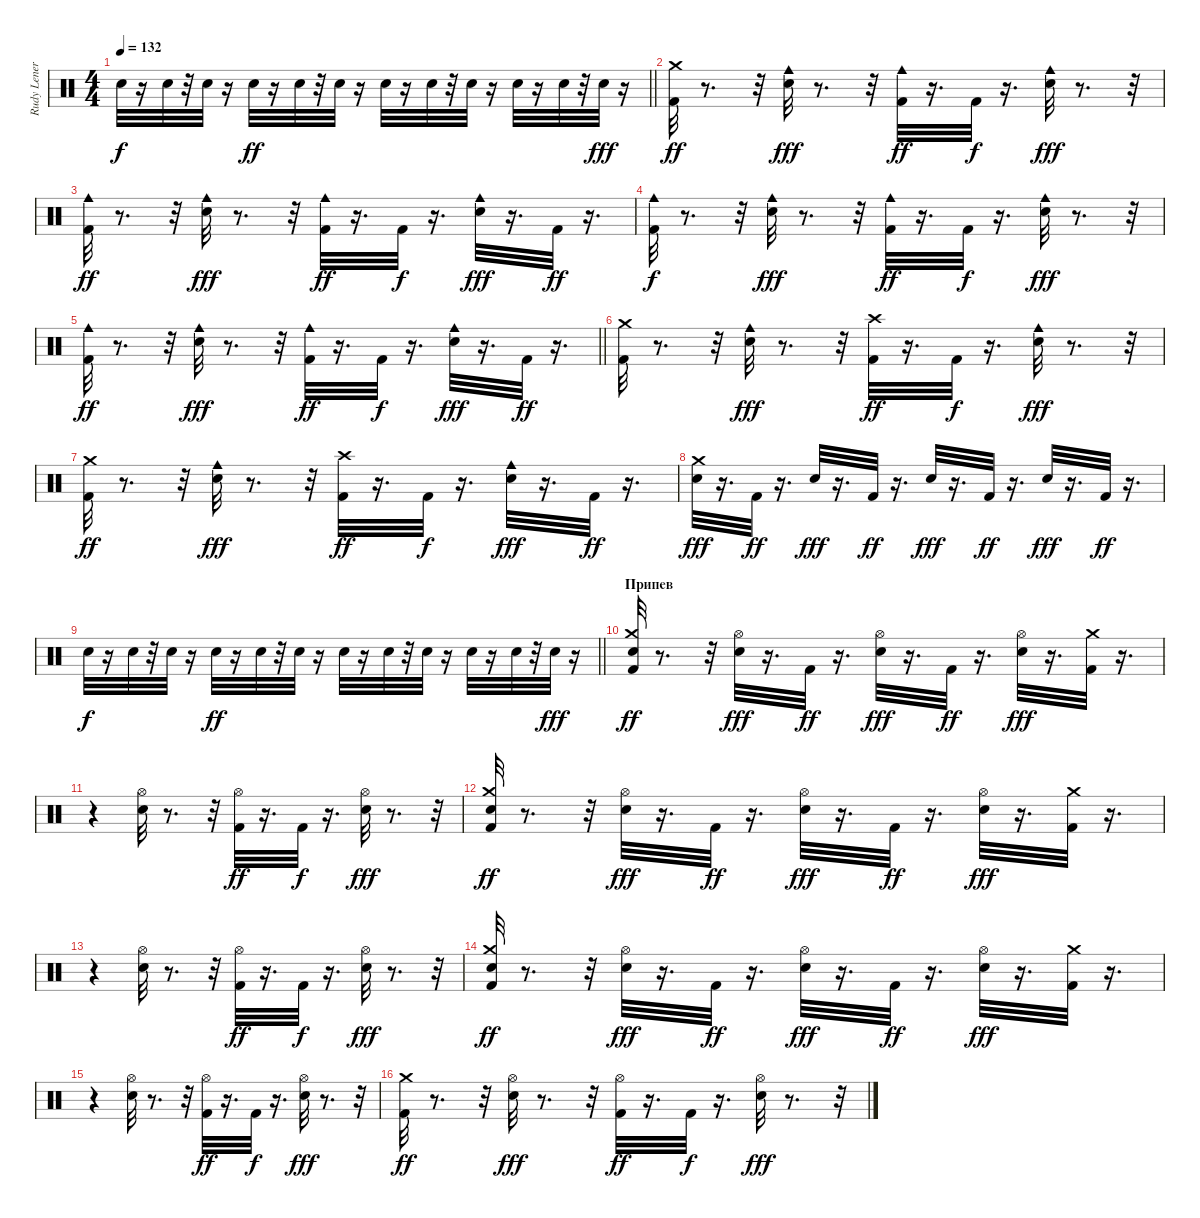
\track ("Rudy Leners" "Rudy Lener") {instrument percussion}
\staff {score}
\articulation defaults
\ts (4 4)
\tempo 132
\clef neutral
\barLineRight lightlight
\ks c "Snare (hit) 2".32{dy f}
r.16 "Snare (hit) 2".32 r.32 "Snare (hit) 2".32 r.16 "Snare (hit) 2".32{dy ff} r.16 "Snare (hit) 2".32 r.32 "Snare (hit) 2".32 r.16 "Snare (hit) 2".32 r.16 "Snare (hit) 2".32 r.32 "Snare (hit) 2".32 r.16 "Snare (hit) 2".32 r.16 "Snare (hit) 2".32 r.32 "Snare (hit) 2".32{dy fff} r.16 |
("Crash medium (hit)" "Kick (hit) 2").32{dy ff} r.8{d} r.32 ("Snare (hit) 2" "Cowbell medium (hit)").32{dy fff} r.8{d} r.32 ("Kick (hit) 2" "Cowbell medium (hit)").32{dy ff} r.16{d} "Kick (hit) 2".32{dy f} r.16{d} ("Snare (hit) 2" "Cowbell medium (hit)").32{dy fff} r.8{d} r.32 |
("Cowbell medium (hit)" "Kick (hit) 2").32{dy ff} r.8{d} r.32 ("Cowbell medium (hit)" "Snare (hit) 2").32{dy fff} r.8{d} r.32 ("Cowbell medium (hit)" "Kick (hit) 2").32{dy ff} r.16{d} "Kick (hit) 2".32{dy f} r.16{d} ("Cowbell medium (hit)" "Snare (hit) 2").32{dy fff} r.16{d} "Kick (hit) 2".32{dy ff} r.16{d} |
("Kick (hit) 2" "Cowbell medium (hit)").32{dy f} r.8{d} r.32 ("Snare (hit) 2" "Cowbell medium (hit)").32{dy fff} r.8{d} r.32 ("Kick (hit) 2" "Cowbell medium (hit)").32{dy ff} r.16{d} "Kick (hit) 2".32{dy f} r.16{d} ("Snare (hit) 2" "Cowbell medium (hit)").32{dy fff} r.8{d} r.32 |
\barLineRight lightlight
("Cowbell medium (hit)" "Kick (hit) 2").32{dy ff} r.8{d} r.32 ("Cowbell medium (hit)" "Snare (hit) 2").32{dy fff} r.8{d} r.32 ("Cowbell medium (hit)" "Kick (hit) 2").32{dy ff} r.16{d} "Kick (hit) 2".32{dy f} r.16{d} ("Cowbell medium (hit)" "Snare (hit) 2").32{dy fff} r.16{d} "Kick (hit) 2".32{dy ff} r.16{d} |
("Crash medium (hit)" "Kick (hit) 2").32 r.8{d} r.32 ("Snare (hit) 2" "Cowbell medium (hit)").32{dy fff} r.8{d} r.32 ("Crash high (hit)" "Kick (hit) 2").32{dy ff} r.16{d} "Kick (hit) 2".32{dy f} r.16{d} ("Snare (hit) 2" "Cowbell medium (hit)").32{dy fff} r.8{d} r.32 |
("Crash medium (hit)" "Kick (hit) 2").32{dy ff} r.8{d} r.32 ("Cowbell medium (hit)" "Snare (hit) 2").32{dy fff} r.8{d} r.32 ("Crash high (hit)" "Kick (hit) 2").32{dy ff} r.16{d} "Kick (hit) 2".32{dy f} r.16{d} ("Cowbell medium (hit)" "Snare (hit) 2").32{dy fff} r.16{d} "Kick (hit) 2".32{dy ff} r.16{d} |
("Crash medium (hit)" "Snare (hit) 2").32{dy fff} r.16{d} "Kick (hit) 2".32{dy ff} r.16{d} "Snare (hit) 2".32{dy fff} r.16{d} "Kick (hit) 2".32{dy ff} r.16{d} "Snare (hit) 2".32{dy fff} r.16{d} "Kick (hit) 2".32{dy ff} r.16{d} "Snare (hit) 2".32{dy fff} r.16{d} "Kick (hit) 2".32{dy ff} r.16{d} |
\barLineRight lightlight "Snare (hit) 2".32{dy f}
r.16 "Snare (hit) 2".32 r.32 "Snare (hit) 2".32 r.16 "Snare (hit) 2".32{dy ff} r.16 "Snare (hit) 2".32 r.32 "Snare (hit) 2".32 r.16 "Snare (hit) 2".32 r.16 "Snare (hit) 2".32 r.32 "Snare (hit) 2".32 r.16 "Snare (hit) 2".32 r.16 "Snare (hit) 2".32 r.32 "Snare (hit) 2".32{dy fff} r.16 |
\section ("" "Припев")
("Snare (hit) 2" "Crash medium (hit)" "Kick (hit) 2").32{dy ff} r.8{d} r.32 ("Hi-Hat (open)" "Snare (hit) 2").32{dy fff} r.16{d} "Kick (hit) 2".32{dy ff} r.16{d} ("Hi-Hat (open)" "Snare (hit) 2").32{dy fff} r.16{d} "Kick (hit) 2".32{dy ff} r.16{d} ("Hi-Hat (open)" "Snare (hit) 2").32{dy fff} r.16{d} ("Kick (hit) 2" "Crash medium (hit)").32 r.16{d} |
r.4 ("Hi-Hat (open)" "Snare (hit) 2").32 r.8{d} r.32 ("Hi-Hat (open)" "Kick (hit) 2").32{dy ff} r.16{d} "Kick (hit) 2".32{dy f} r.16{d} ("Hi-Hat (open)" "Snare (hit) 2").32{dy fff} r.8{d} r.32 |
("Snare (hit) 2" "Crash medium (hit)" "Kick (hit) 2").32{dy ff} r.8{d} r.32 ("Hi-Hat (open)" "Snare (hit) 2").32{dy fff} r.16{d} "Kick (hit) 2".32{dy ff} r.16{d} ("Hi-Hat (open)" "Snare (hit) 2").32{dy fff} r.16{d} "Kick (hit) 2".32{dy ff} r.16{d} ("Hi-Hat (open)" "Snare (hit) 2").32{dy fff} r.16{d} ("Kick (hit) 2" "Crash medium (hit)").32 r.16{d} |
r.4 ("Hi-Hat (open)" "Snare (hit) 2").32 r.8{d} r.32 ("Hi-Hat (open)" "Kick (hit) 2").32{dy ff} r.16{d} "Kick (hit) 2".32{dy f} r.16{d} ("Hi-Hat (open)" "Snare (hit) 2").32{dy fff} r.8{d} r.32 |
("Snare (hit) 2" "Crash medium (hit)" "Kick (hit) 2").32{dy ff} r.8{d} r.32 ("Hi-Hat (open)" "Snare (hit) 2").32{dy fff} r.16{d} "Kick (hit) 2".32{dy ff} r.16{d} ("Hi-Hat (open)" "Snare (hit) 2").32{dy fff} r.16{d} "Kick (hit) 2".32{dy ff} r.16{d} ("Hi-Hat (open)" "Snare (hit) 2").32{dy fff} r.16{d} ("Kick (hit) 2" "Crash medium (hit)").32 r.16{d} |
r.4 ("Hi-Hat (open)" "Snare (hit) 2").32 r.8{d} r.32 ("Hi-Hat (open)" "Kick (hit) 2").32{dy ff} r.16{d} "Kick (hit) 2".32{dy f} r.16{d} ("Hi-Hat (open)" "Snare (hit) 2").32{dy fff} r.8{d} r.32 |
("Crash medium (hit)" "Kick (hit) 2").32{dy ff} r.8{d} r.32 ("Hi-Hat (open)" "Snare (hit) 2").32{dy fff} r.8{d} r.32 ("Hi-Hat (open)" "Kick (hit) 2").32{dy ff} r.16{d} "Kick (hit) 2".32{dy f} r.16{d} ("Hi-Hat (open)" "Snare (hit) 2").32{dy fff} r.8{d} r.32
